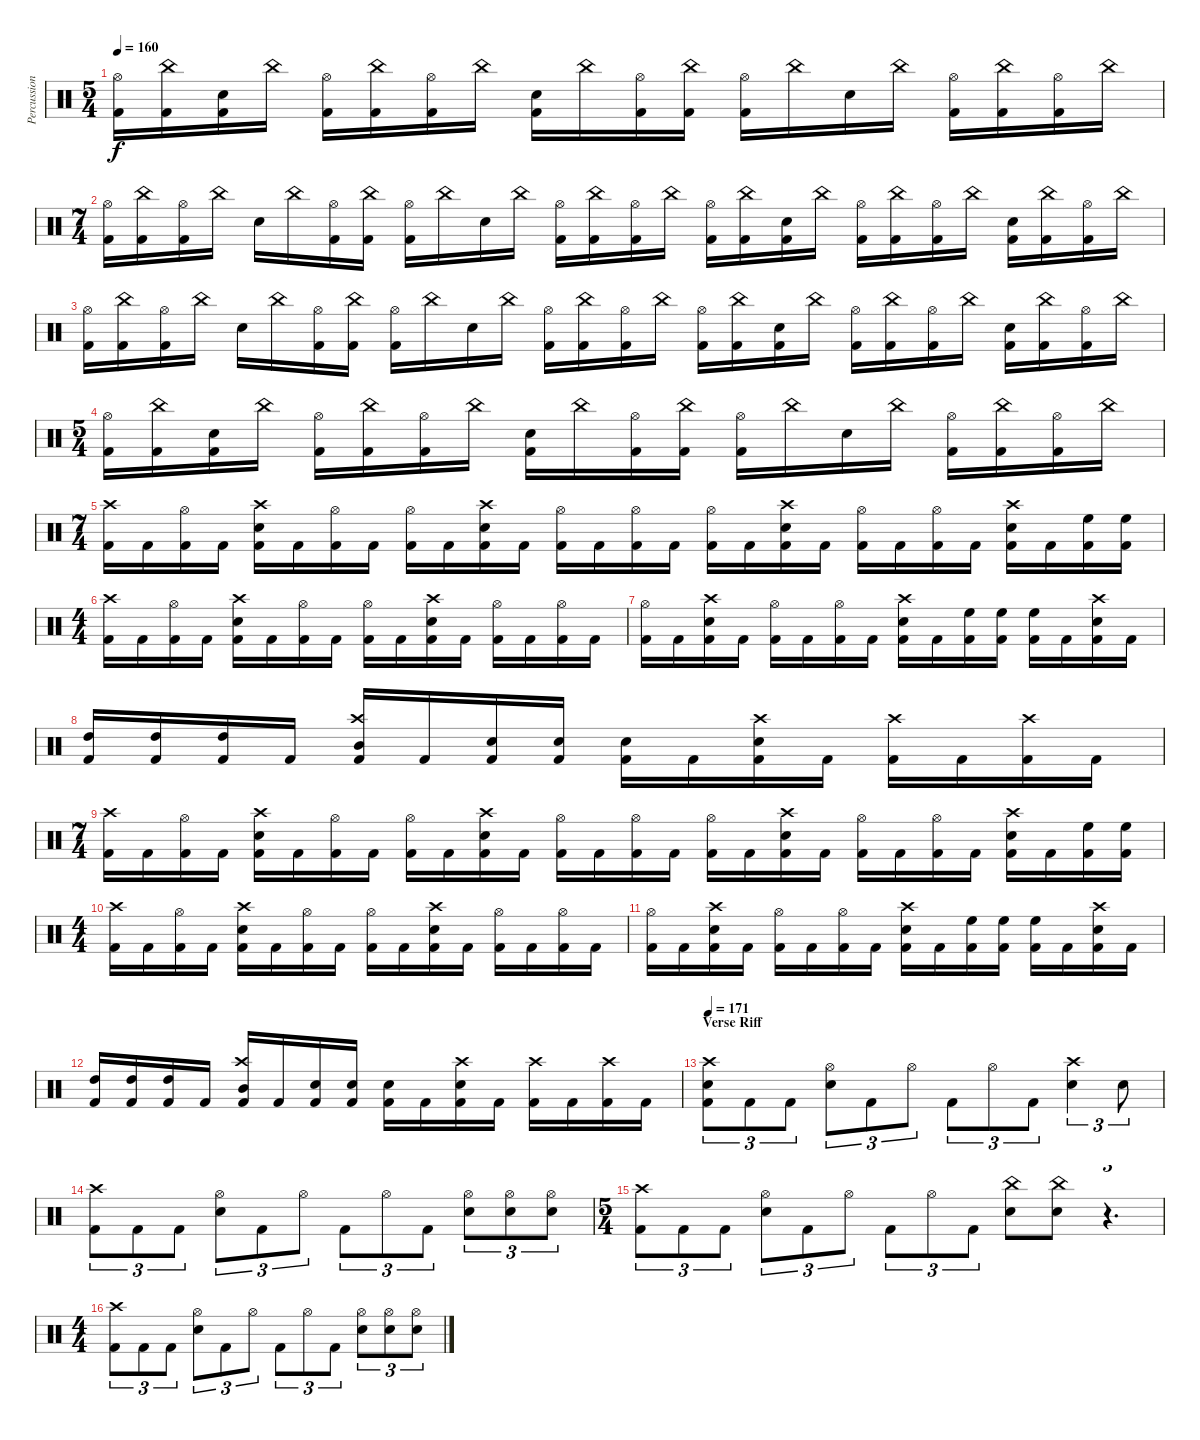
\track ("Percussion" "Percussion") {instrument percussion}
\staff {score}
\articulation defaults
\ts (5 4)
\tempo 160
\clef neutral
\ks c
("Hi-Hat (open)" "Kick (hit) 2").16{dy f} ("China (hit)" "Kick (hit) 2").16 ("Electric Snare (hit)" "Kick (hit) 2").16 "China (hit)".16 ("Hi-Hat (open)" "Kick (hit) 2").16 ("China (hit)" "Kick (hit) 2").16 ("Hi-Hat (open)" "Kick (hit) 2").16 "China (hit)".16 ("Electric Snare (hit)" "Kick (hit) 2").16 "China (hit)".16 ("Hi-Hat (open)" "Kick (hit) 2").16 ("China (hit)" "Kick (hit) 2").16 ("Hi-Hat (open)" "Kick (hit) 2").16 "China (hit)".16 "Electric Snare (hit)".16 "China (hit)".16 ("Hi-Hat (open)" "Kick (hit) 2").16 ("China (hit)" "Kick (hit) 2").16 ("Hi-Hat (open)" "Kick (hit) 2").16 "China (hit)".16 |
\ts (7 4)
("Hi-Hat (open)" "Kick (hit) 2").16 ("China (hit)" "Kick (hit) 2").16 ("Hi-Hat (open)" "Kick (hit) 2").16 "China (hit)".16 "Electric Snare (hit)".16 "China (hit)".16 ("Hi-Hat (open)" "Kick (hit) 2").16 ("China (hit)" "Kick (hit) 2").16 ("Hi-Hat (open)" "Kick (hit) 2").16 "China (hit)".16 "Electric Snare (hit)".16 "China (hit)".16 ("Hi-Hat (open)" "Kick (hit) 2").16 ("China (hit)" "Kick (hit) 2").16 ("Hi-Hat (open)" "Kick (hit) 2").16 "China (hit)".16 ("Hi-Hat (open)" "Kick (hit) 2").16 ("China (hit)" "Kick (hit) 2").16 ("Electric Snare (hit)" "Kick (hit) 2").16 "China (hit)".16 ("Hi-Hat (open)" "Kick (hit) 2").16 ("China (hit)" "Kick (hit) 2").16 ("Hi-Hat (open)" "Kick (hit) 2").16 "China (hit)".16 ("Electric Snare (hit)" "Kick (hit) 2").16 ("China (hit)" "Kick (hit) 2").16 ("Hi-Hat (open)" "Kick (hit) 2").16 "China (hit)".16 |
("Hi-Hat (open)" "Kick (hit) 2").16 ("China (hit)" "Kick (hit) 2").16 ("Hi-Hat (open)" "Kick (hit) 2").16 "China (hit)".16 "Electric Snare (hit)".16 "China (hit)".16 ("Hi-Hat (open)" "Kick (hit) 2").16 ("China (hit)" "Kick (hit) 2").16 ("Hi-Hat (open)" "Kick (hit) 2").16 "China (hit)".16 "Electric Snare (hit)".16 "China (hit)".16 ("Hi-Hat (open)" "Kick (hit) 2").16 ("China (hit)" "Kick (hit) 2").16 ("Hi-Hat (open)" "Kick (hit) 2").16 "China (hit)".16 ("Hi-Hat (open)" "Kick (hit) 2").16 ("China (hit)" "Kick (hit) 2").16 ("Electric Snare (hit)" "Kick (hit) 2").16 "China (hit)".16 ("Hi-Hat (open)" "Kick (hit) 2").16 ("China (hit)" "Kick (hit) 2").16 ("Hi-Hat (open)" "Kick (hit) 2").16 "China (hit)".16 ("Electric Snare (hit)" "Kick (hit) 2").16 ("China (hit)" "Kick (hit) 2").16 ("Hi-Hat (open)" "Kick (hit) 2").16 "China (hit)".16 |
\ts (5 4)
("Hi-Hat (open)" "Kick (hit) 2").16 ("China (hit)" "Kick (hit) 2").16 ("Electric Snare (hit)" "Kick (hit) 2").16 "China (hit)".16 ("Hi-Hat (open)" "Kick (hit) 2").16 ("China (hit)" "Kick (hit) 2").16 ("Hi-Hat (open)" "Kick (hit) 2").16 "China (hit)".16 ("Electric Snare (hit)" "Kick (hit) 2").16 "China (hit)".16 ("Hi-Hat (open)" "Kick (hit) 2").16 ("China (hit)" "Kick (hit) 2").16 ("Hi-Hat (open)" "Kick (hit) 2").16 "China (hit)".16 "Electric Snare (hit)".16 "China (hit)".16 ("Hi-Hat (open)" "Kick (hit) 2").16 ("China (hit)" "Kick (hit) 2").16 ("Hi-Hat (open)" "Kick (hit) 2").16 "China (hit)".16 |
\ts (7 4)
("Crash high (hit)" "Kick (hit) 2").16 "Kick (hit) 2".16 ("Hi-Hat (open)" "Kick (hit) 2").16 "Kick (hit) 2".16 ("Crash high (hit)" "Electric Snare (hit)" "Kick (hit) 2").16 "Kick (hit) 2".16 ("Hi-Hat (open)" "Kick (hit) 2").16 "Kick (hit) 2".16 ("Hi-Hat (open)" "Kick (hit) 2").16 "Kick (hit) 2".16 ("Crash high (hit)" "Electric Snare (hit)" "Kick (hit) 2").16 "Kick (hit) 2".16 ("Hi-Hat (open)" "Kick (hit) 2").16 "Kick (hit) 2".16 ("Hi-Hat (open)" "Kick (hit) 2").16 "Kick (hit) 2".16 ("Hi-Hat (open)" "Kick (hit) 2").16 "Kick (hit) 2".16 ("Crash high (hit)" "Electric Snare (hit)" "Kick (hit) 2").16 "Kick (hit) 2".16 ("Hi-Hat (open)" "Kick (hit) 2").16 "Kick (hit) 2".16 ("Hi-Hat (open)" "Kick (hit) 2").16 "Kick (hit) 2".16 ("Crash high (hit)" "Electric Snare (hit)" "Kick (hit) 2").16 "Kick (hit) 2".16 ("High Floor Tom (hit)" "Kick (hit) 2").16 ("High Floor Tom (hit)" "Kick (hit) 2").16 |
\ts (4 4)
("Crash high (hit)" "Kick (hit) 2").16 "Kick (hit) 2".16 ("Hi-Hat (open)" "Kick (hit) 2").16 "Kick (hit) 2".16 ("Crash high (hit)" "Electric Snare (hit)" "Kick (hit) 2").16 "Kick (hit) 2".16 ("Hi-Hat (open)" "Kick (hit) 2").16 "Kick (hit) 2".16 ("Hi-Hat (open)" "Kick (hit) 2").16 "Kick (hit) 2".16 ("Crash high (hit)" "Electric Snare (hit)" "Kick (hit) 2").16 "Kick (hit) 2".16 ("Hi-Hat (open)" "Kick (hit) 2").16 "Kick (hit) 2".16 ("Hi-Hat (open)" "Kick (hit) 2").16 "Kick (hit) 2".16 |
("Hi-Hat (open)" "Kick (hit) 2").16 "Kick (hit) 2".16 ("Crash high (hit)" "Electric Snare (hit)" "Kick (hit) 2").16 "Kick (hit) 2".16 ("Hi-Hat (open)" "Kick (hit) 2").16 "Kick (hit) 2".16 ("Hi-Hat (open)" "Kick (hit) 2").16 "Kick (hit) 2".16 ("Crash high (hit)" "Electric Snare (hit)" "Kick (hit) 2").16 "Kick (hit) 2".16 ("High Floor Tom (hit)" "Kick (hit) 2").16 ("High Floor Tom (hit)" "Kick (hit) 2").16 ("High Floor Tom (hit)" "Kick (hit) 2").16 "Kick (hit) 2".16 ("Crash high (hit)" "Electric Snare (hit)" "Kick (hit) 2").16 "Kick (hit) 2".16 |
("High Tom (hit)" "Kick (hit) 2").16 ("High Tom (hit)" "Kick (hit) 2").16 ("High Tom (hit)" "Kick (hit) 2").16 "Kick (hit) 2".16 ("Crash high (hit)" "Mid Tom (hit)" "Kick (hit) 2").16 "Kick (hit) 2".16 ("Electric Snare (hit)" "Kick (hit) 2").16 ("Electric Snare (hit)" "Kick (hit) 2").16 ("Electric Snare (hit)" "Kick (hit) 2").16 "Kick (hit) 2".16 ("Crash high (hit)" "Electric Snare (hit)" "Kick (hit) 2").16 "Kick (hit) 2".16 ("Crash high (hit)" "Kick (hit) 2").16 "Kick (hit) 2".16 ("Crash high (hit)" "Kick (hit) 2").16 "Kick (hit) 2".16 |
\ts (7 4)
("Crash high (hit)" "Kick (hit) 2").16 "Kick (hit) 2".16 ("Hi-Hat (open)" "Kick (hit) 2").16 "Kick (hit) 2".16 ("Crash high (hit)" "Electric Snare (hit)" "Kick (hit) 2").16 "Kick (hit) 2".16 ("Hi-Hat (open)" "Kick (hit) 2").16 "Kick (hit) 2".16 ("Hi-Hat (open)" "Kick (hit) 2").16 "Kick (hit) 2".16 ("Crash high (hit)" "Electric Snare (hit)" "Kick (hit) 2").16 "Kick (hit) 2".16 ("Hi-Hat (open)" "Kick (hit) 2").16 "Kick (hit) 2".16 ("Hi-Hat (open)" "Kick (hit) 2").16 "Kick (hit) 2".16 ("Hi-Hat (open)" "Kick (hit) 2").16 "Kick (hit) 2".16 ("Crash high (hit)" "Electric Snare (hit)" "Kick (hit) 2").16 "Kick (hit) 2".16 ("Hi-Hat (open)" "Kick (hit) 2").16 "Kick (hit) 2".16 ("Hi-Hat (open)" "Kick (hit) 2").16 "Kick (hit) 2".16 ("Crash high (hit)" "Electric Snare (hit)" "Kick (hit) 2").16 "Kick (hit) 2".16 ("High Floor Tom (hit)" "Kick (hit) 2").16 ("High Floor Tom (hit)" "Kick (hit) 2").16 |
\ts (4 4)
("Crash high (hit)" "Kick (hit) 2").16 "Kick (hit) 2".16 ("Hi-Hat (open)" "Kick (hit) 2").16 "Kick (hit) 2".16 ("Crash high (hit)" "Electric Snare (hit)" "Kick (hit) 2").16 "Kick (hit) 2".16 ("Hi-Hat (open)" "Kick (hit) 2").16 "Kick (hit) 2".16 ("Hi-Hat (open)" "Kick (hit) 2").16 "Kick (hit) 2".16 ("Crash high (hit)" "Electric Snare (hit)" "Kick (hit) 2").16 "Kick (hit) 2".16 ("Hi-Hat (open)" "Kick (hit) 2").16 "Kick (hit) 2".16 ("Hi-Hat (open)" "Kick (hit) 2").16 "Kick (hit) 2".16 |
("Hi-Hat (open)" "Kick (hit) 2").16 "Kick (hit) 2".16 ("Crash high (hit)" "Electric Snare (hit)" "Kick (hit) 2").16 "Kick (hit) 2".16 ("Hi-Hat (open)" "Kick (hit) 2").16 "Kick (hit) 2".16 ("Hi-Hat (open)" "Kick (hit) 2").16 "Kick (hit) 2".16 ("Crash high (hit)" "Electric Snare (hit)" "Kick (hit) 2").16 "Kick (hit) 2".16 ("High Floor Tom (hit)" "Kick (hit) 2").16 ("High Floor Tom (hit)" "Kick (hit) 2").16 ("High Floor Tom (hit)" "Kick (hit) 2").16 "Kick (hit) 2".16 ("Crash high (hit)" "Electric Snare (hit)" "Kick (hit) 2").16 "Kick (hit) 2".16 |
("High Tom (hit)" "Kick (hit) 2").16 ("High Tom (hit)" "Kick (hit) 2").16 ("High Tom (hit)" "Kick (hit) 2").16 "Kick (hit) 2".16 ("Crash high (hit)" "Mid Tom (hit)" "Kick (hit) 2").16 "Kick (hit) 2".16 ("Electric Snare (hit)" "Kick (hit) 2").16 ("Electric Snare (hit)" "Kick (hit) 2").16 ("Electric Snare (hit)" "Kick (hit) 2").16 "Kick (hit) 2".16 ("Crash high (hit)" "Electric Snare (hit)" "Kick (hit) 2").16 "Kick (hit) 2".16 ("Crash high (hit)" "Kick (hit) 2").16 "Kick (hit) 2".16 ("Crash high (hit)" "Kick (hit) 2").16 "Kick (hit) 2".16 |
\section ("" "Verse Riff")
\tempo 171
("Crash high (hit)" "Electric Snare (hit)" "Kick (hit) 2").8{tu (3 2)} "Kick (hit) 2".8{tu (3 2)} "Kick (hit) 2".8{tu (3 2)} ("Hi-Hat (open)" "Electric Snare (hit)").8{tu (3 2)} "Kick (hit) 2".8{tu (3 2)} "Hi-Hat (open)".8{tu (3 2)} "Kick (hit) 2".8{tu (3 2)} "Hi-Hat (open)".8{tu (3 2)} "Kick (hit) 2".8{tu (3 2)} ("Crash high (hit)" "Electric Snare (hit)").4{tu (3 2)} "Electric Snare (hit)".8{tu (3 2)} |
("Crash high (hit)" "Kick (hit) 2").8{tu (3 2)} "Kick (hit) 2".8{tu (3 2)} "Kick (hit) 2".8{tu (3 2)} ("Hi-Hat (open)" "Electric Snare (hit)").8{tu (3 2)} "Kick (hit) 2".8{tu (3 2)} "Hi-Hat (open)".8{tu (3 2)} "Kick (hit) 2".8{tu (3 2)} "Hi-Hat (open)".8{tu (3 2)} "Kick (hit) 2".8{tu (3 2)} ("Hi-Hat (open)" "Electric Snare (hit)").8{tu (3 2)} ("Hi-Hat (open)" "Electric Snare (hit)").8{tu (3 2)} ("Hi-Hat (open)" "Electric Snare (hit)").8{tu (3 2)} |
\ts (5 4)
("Crash high (hit)" "Kick (hit) 2").8{tu (3 2)} "Kick (hit) 2".8{tu (3 2)} "Kick (hit) 2".8{tu (3 2)} ("Hi-Hat (open)" "Electric Snare (hit)").8{tu (3 2)} "Kick (hit) 2".8{tu (3 2)} "Hi-Hat (open)".8{tu (3 2)} "Kick (hit) 2".8{tu (3 2)} "Hi-Hat (open)".8{tu (3 2)} "Kick (hit) 2".8{tu (3 2)} ("China (hit)" "Electric Snare (hit)").8 ("China (hit)" "Electric Snare (hit)").8 r.4{d tu (3 2)} |
\ts (4 4)
("Crash high (hit)" "Kick (hit) 2").8{tu (3 2)} "Kick (hit) 2".8{tu (3 2)} "Kick (hit) 2".8{tu (3 2)} ("Hi-Hat (open)" "Electric Snare (hit)").8{tu (3 2)} "Kick (hit) 2".8{tu (3 2)} "Hi-Hat (open)".8{tu (3 2)} "Kick (hit) 2".8{tu (3 2)} "Hi-Hat (open)".8{tu (3 2)} "Kick (hit) 2".8{tu (3 2)} ("Hi-Hat (open)" "Electric Snare (hit)").8{tu (3 2)} ("Hi-Hat (open)" "Electric Snare (hit)").8{tu (3 2)} ("Hi-Hat (open)" "Electric Snare (hit)").8{tu (3 2)}
